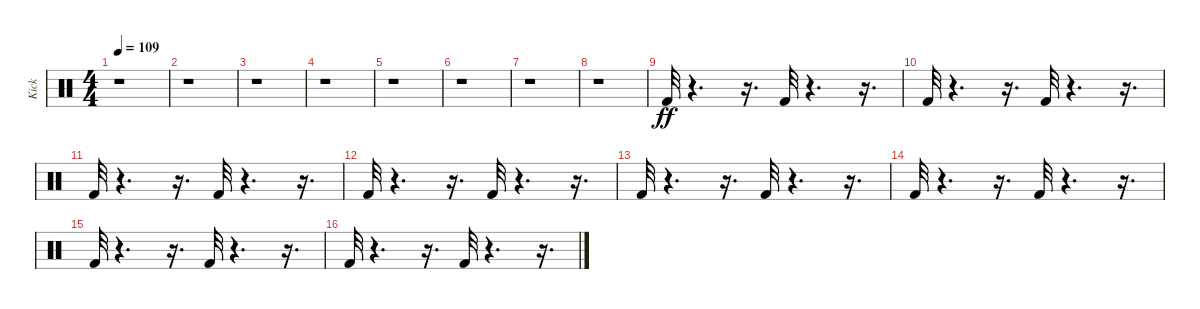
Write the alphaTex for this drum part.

\track ("Kick" "Kick") {instrument percussion}
\staff {score}
\articulation defaults
\ts (4 4)
\tempo 109
\clef neutral
\ks c
r.1{dy ff} |
r.1 |
r.1 |
r.1 |
r.1 |
r.1 |
r.1 |
r.1 |
"Kick (hit) 2".32 r.4{d} r.16{d} "Kick (hit) 2".32 r.4{d} r.16{d} |
"Kick (hit) 2".32 r.4{d} r.16{d} "Kick (hit) 2".32 r.4{d} r.16{d} |
"Kick (hit) 2".32 r.4{d} r.16{d} "Kick (hit) 2".32 r.4{d} r.16{d} |
"Kick (hit) 2".32 r.4{d} r.16{d} "Kick (hit) 2".32 r.4{d} r.16{d} |
"Kick (hit) 2".32 r.4{d} r.16{d} "Kick (hit) 2".32 r.4{d} r.16{d} |
"Kick (hit) 2".32 r.4{d} r.16{d} "Kick (hit) 2".32 r.4{d} r.16{d} |
"Kick (hit) 2".32 r.4{d} r.16{d} "Kick (hit) 2".32 r.4{d} r.16{d} |
"Kick (hit) 2".32 r.4{d} r.16{d} "Kick (hit) 2".32 r.4{d} r.16{d}
